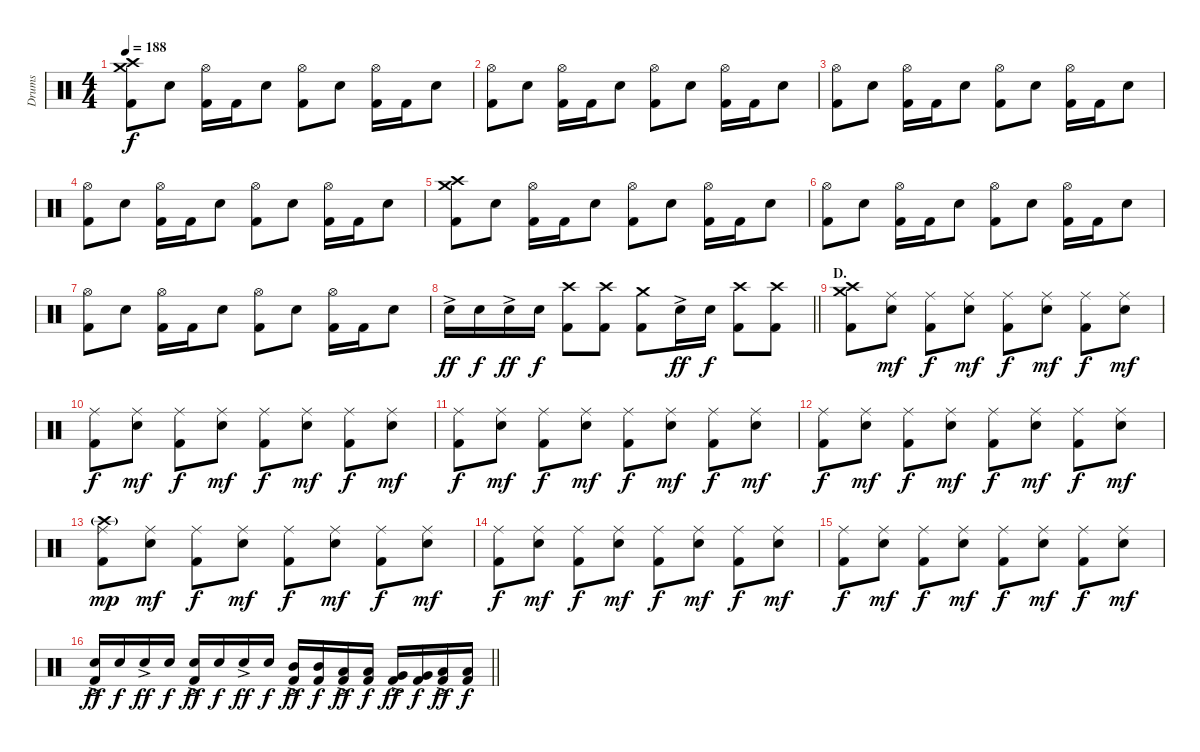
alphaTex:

\track ("Drums" "Drums") {instrument percussion}
\staff {score}
\articulation defaults
\ts (4 4)
\tempo 188
\clef neutral
\ks c
("Crash medium (hit)" "Crash high (hit)" "Kick (hit) 2").8{dy f} "Electric Snare (hit)".8 ("Hi-Hat (open)" "Kick (hit) 2").16 "Kick (hit) 2".16 "Electric Snare (hit)".8 ("Hi-Hat (open)" "Kick (hit) 2").8 "Electric Snare (hit)".8 ("Hi-Hat (open)" "Kick (hit) 2").16 "Kick (hit) 2".16 "Electric Snare (hit)".8 |
("Hi-Hat (open)" "Kick (hit) 2").8 "Electric Snare (hit)".8 ("Hi-Hat (open)" "Kick (hit) 2").16 "Kick (hit) 2".16 "Electric Snare (hit)".8 ("Hi-Hat (open)" "Kick (hit) 2").8 "Electric Snare (hit)".8 ("Hi-Hat (open)" "Kick (hit) 2").16 "Kick (hit) 2".16 "Electric Snare (hit)".8 |
("Hi-Hat (open)" "Kick (hit) 2").8 "Electric Snare (hit)".8 ("Hi-Hat (open)" "Kick (hit) 2").16 "Kick (hit) 2".16 "Electric Snare (hit)".8 ("Hi-Hat (open)" "Kick (hit) 2").8 "Electric Snare (hit)".8 ("Hi-Hat (open)" "Kick (hit) 2").16 "Kick (hit) 2".16 "Electric Snare (hit)".8 |
("Hi-Hat (open)" "Kick (hit) 2").8 "Electric Snare (hit)".8 ("Hi-Hat (open)" "Kick (hit) 2").16 "Kick (hit) 2".16 "Electric Snare (hit)".8 ("Hi-Hat (open)" "Kick (hit) 2").8 "Electric Snare (hit)".8 ("Hi-Hat (open)" "Kick (hit) 2").16 "Kick (hit) 2".16 "Electric Snare (hit)".8 |
("Crash medium (hit)" "Crash high (hit)" "Kick (hit) 2").8 "Electric Snare (hit)".8 ("Hi-Hat (open)" "Kick (hit) 2").16 "Kick (hit) 2".16 "Electric Snare (hit)".8 ("Hi-Hat (open)" "Kick (hit) 2").8 "Electric Snare (hit)".8 ("Hi-Hat (open)" "Kick (hit) 2").16 "Kick (hit) 2".16 "Electric Snare (hit)".8 |
("Hi-Hat (open)" "Kick (hit) 2").8 "Electric Snare (hit)".8 ("Hi-Hat (open)" "Kick (hit) 2").16 "Kick (hit) 2".16 "Electric Snare (hit)".8 ("Hi-Hat (open)" "Kick (hit) 2").8 "Electric Snare (hit)".8 ("Hi-Hat (open)" "Kick (hit) 2").16 "Kick (hit) 2".16 "Electric Snare (hit)".8 |
("Hi-Hat (open)" "Kick (hit) 2").8 "Electric Snare (hit)".8 ("Hi-Hat (open)" "Kick (hit) 2").16 "Kick (hit) 2".16 "Electric Snare (hit)".8 ("Hi-Hat (open)" "Kick (hit) 2").8 "Electric Snare (hit)".8 ("Hi-Hat (open)" "Kick (hit) 2").16 "Kick (hit) 2".16 "Electric Snare (hit)".8 |
\barLineRight lightlight "Electric Snare (hit)"{ac}.16{dy ff} "Electric Snare (hit)".16{dy f} "Electric Snare (hit)"{ac}.16{dy ff} "Electric Snare (hit)".16{dy f}
("Crash high (hit)" "Kick (hit) 2").8 ("Crash high (hit)" "Kick (hit) 2").8 ("Crash medium (hit)" "Kick (hit) 2").8 "Electric Snare (hit)"{ac}.16{dy ff} "Electric Snare (hit)".16{dy f} ("Crash high (hit)" "Kick (hit) 2").8 ("Crash high (hit)" "Kick (hit) 2").8 |
\section ("" "D.")
("Crash medium (hit)" "Crash high (hit)" "Kick (hit) 2").8 ("Ride (middle)" "Electric Snare (hit)").8{dy mf} ("Ride (middle)" "Kick (hit) 2").8{dy f} ("Ride (middle)" "Electric Snare (hit)").8{dy mf} ("Ride (middle)" "Kick (hit) 2").8{dy f} ("Ride (middle)" "Electric Snare (hit)").8{dy mf} ("Ride (middle)" "Kick (hit) 2").8{dy f} ("Ride (middle)" "Electric Snare (hit)").8{dy mf} |
("Ride (middle)" "Kick (hit) 2").8{dy f} ("Ride (middle)" "Electric Snare (hit)").8{dy mf} ("Ride (middle)" "Kick (hit) 2").8{dy f} ("Ride (middle)" "Electric Snare (hit)").8{dy mf} ("Ride (middle)" "Kick (hit) 2").8{dy f} ("Ride (middle)" "Electric Snare (hit)").8{dy mf} ("Ride (middle)" "Kick (hit) 2").8{dy f} ("Ride (middle)" "Electric Snare (hit)").8{dy mf} |
("Ride (middle)" "Kick (hit) 2").8{dy f} ("Ride (middle)" "Electric Snare (hit)").8{dy mf} ("Ride (middle)" "Kick (hit) 2").8{dy f} ("Ride (middle)" "Electric Snare (hit)").8{dy mf} ("Ride (middle)" "Kick (hit) 2").8{dy f} ("Ride (middle)" "Electric Snare (hit)").8{dy mf} ("Ride (middle)" "Kick (hit) 2").8{dy f} ("Ride (middle)" "Electric Snare (hit)").8{dy mf} |
("Ride (middle)" "Kick (hit) 2").8{dy f} ("Ride (middle)" "Electric Snare (hit)").8{dy mf} ("Ride (middle)" "Kick (hit) 2").8{dy f} ("Ride (middle)" "Electric Snare (hit)").8{dy mf} ("Ride (middle)" "Kick (hit) 2").8{dy f} ("Ride (middle)" "Electric Snare (hit)").8{dy mf} ("Ride (middle)" "Kick (hit) 2").8{dy f} ("Ride (middle)" "Electric Snare (hit)").8{dy mf} |
("Crash high (hit)"{g} "Ride (middle)" "Kick (hit) 2").8{dy mp} ("Ride (middle)" "Electric Snare (hit)").8{dy mf} ("Ride (middle)" "Kick (hit) 2").8{dy f} ("Ride (middle)" "Electric Snare (hit)").8{dy mf} ("Ride (middle)" "Kick (hit) 2").8{dy f} ("Ride (middle)" "Electric Snare (hit)").8{dy mf} ("Ride (middle)" "Kick (hit) 2").8{dy f} ("Ride (middle)" "Electric Snare (hit)").8{dy mf} |
("Ride (middle)" "Kick (hit) 2").8{dy f} ("Ride (middle)" "Electric Snare (hit)").8{dy mf} ("Ride (middle)" "Kick (hit) 2").8{dy f} ("Ride (middle)" "Electric Snare (hit)").8{dy mf} ("Ride (middle)" "Kick (hit) 2").8{dy f} ("Ride (middle)" "Electric Snare (hit)").8{dy mf} ("Ride (middle)" "Kick (hit) 2").8{dy f} ("Ride (middle)" "Electric Snare (hit)").8{dy mf} |
("Ride (middle)" "Kick (hit) 2").8{dy f} ("Ride (middle)" "Electric Snare (hit)").8{dy mf} ("Ride (middle)" "Kick (hit) 2").8{dy f} ("Ride (middle)" "Electric Snare (hit)").8{dy mf} ("Ride (middle)" "Kick (hit) 2").8{dy f} ("Ride (middle)" "Electric Snare (hit)").8{dy mf} ("Ride (middle)" "Kick (hit) 2").8{dy f} ("Ride (middle)" "Electric Snare (hit)").8{dy mf} |
\barLineRight lightlight
("Electric Snare (hit)"{ac} "Kick (hit) 2").16{dy ff} "Electric Snare (hit)".16{dy f} "Electric Snare (hit)"{ac}.16{dy ff} "Electric Snare (hit)".16{dy f} ("Electric Snare (hit)"{ac} "Kick (hit) 2").16{dy ff} "Electric Snare (hit)".16{dy f} "Electric Snare (hit)"{ac}.16{dy ff} "Electric Snare (hit)".16{dy f} ("Mid Tom (hit)"{ac} "Kick (hit) 2").16{dy ff} ("Mid Tom (hit)" "Kick (hit) 2").16{dy f} ("Low Tom (hit)"{ac} "Kick (hit) 2").16{dy ff} ("Low Tom (hit)" "Kick (hit) 2").16{dy f} ("Very Low Tom (hit)"{ac} "Kick (hit) 2").16{dy ff} ("Very Low Tom (hit)" "Kick (hit) 2").16{dy f} ("Low Floor Tom (hit)"{ac} "Kick (hit) 2").16{dy ff} ("Low Floor Tom (hit)" "Kick (hit) 2").16{dy f}
